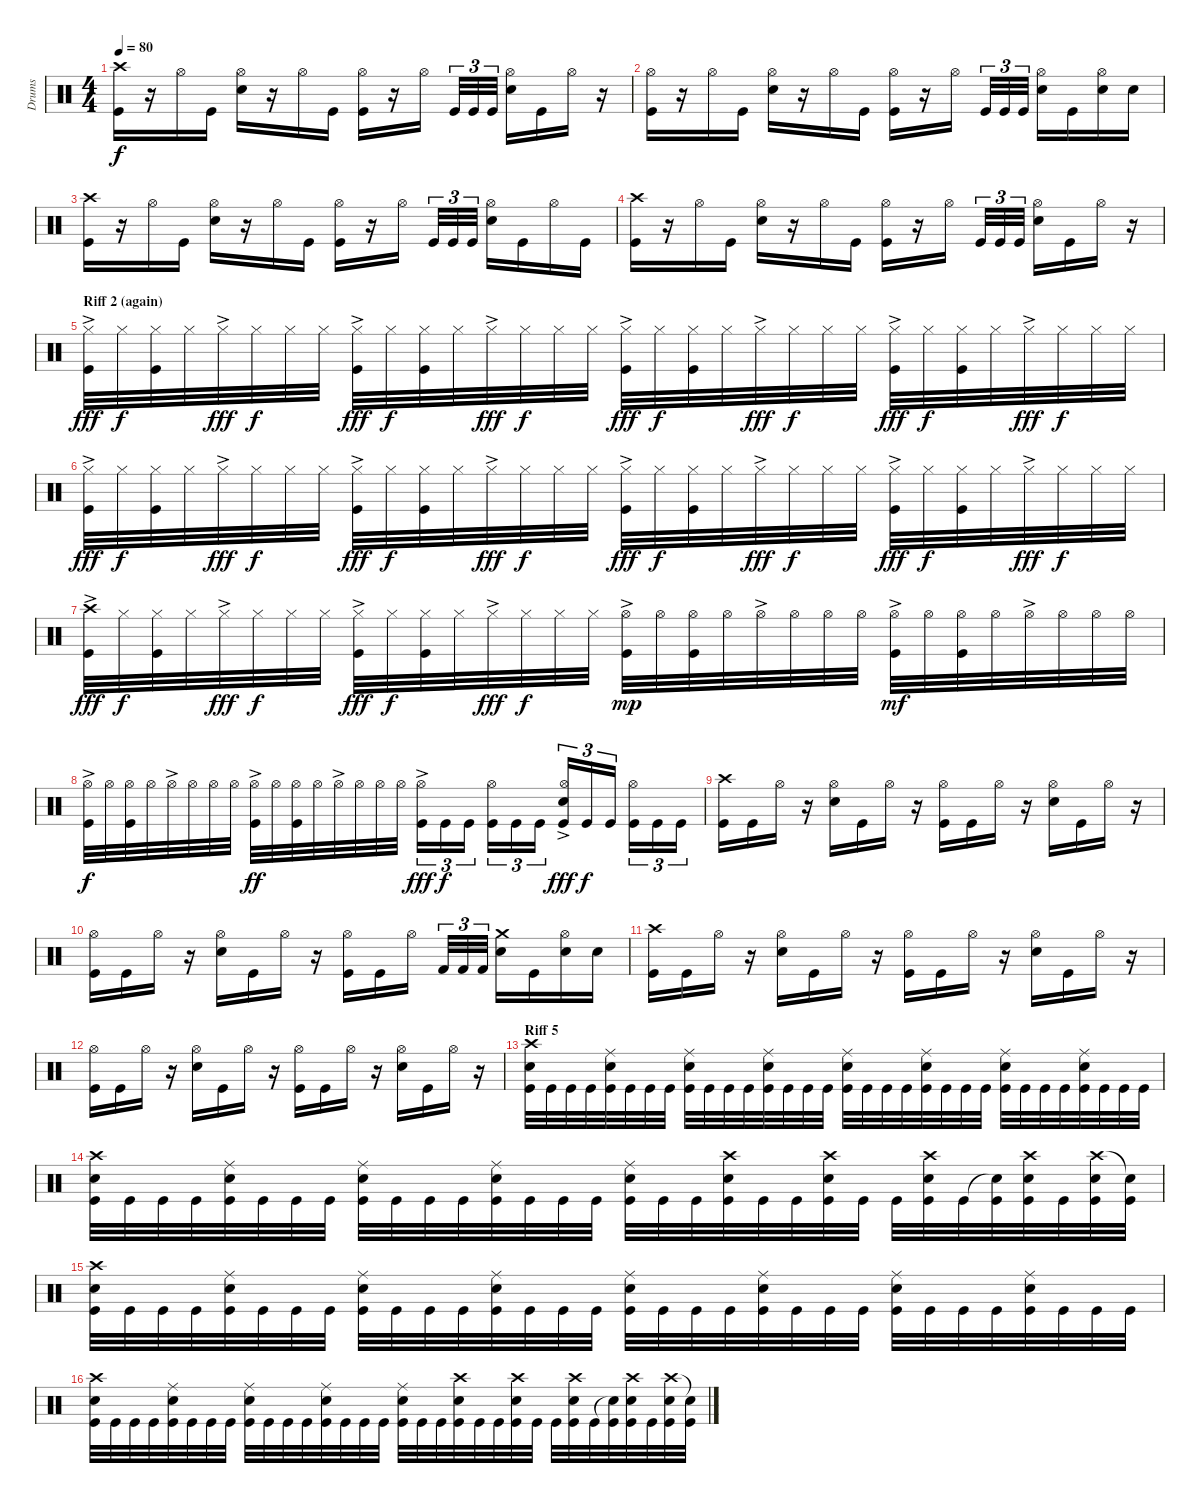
\track ("Drums" "Drums") {instrument percussion}
\staff {score}
\articulation defaults
\ts (4 4)
\tempo 80
\clef neutral
\ks c
("Crash high (hit)" "Kick (hit)").16{dy f} r.16 "Hi-Hat (open)".16 "Kick (hit)".16 ("Hi-Hat (open)" "Electric Snare (hit)").16 r.16 "Hi-Hat (open)".16 "Kick (hit)".16 ("Hi-Hat (open)" "Kick (hit)").16 r.16 "Hi-Hat (open)".16 "Kick (hit)".32{tu (3 2)} "Kick (hit)".32{tu (3 2)} "Kick (hit)".32{tu (3 2)} ("Hi-Hat (open)" "Electric Snare (hit)").16 "Kick (hit)".16 "Hi-Hat (open)".16 r.16 |
("Hi-Hat (open)" "Kick (hit)").16 r.16 "Hi-Hat (open)".16 "Kick (hit)".16 ("Hi-Hat (open)" "Electric Snare (hit)").16 r.16 "Hi-Hat (open)".16 "Kick (hit)".16 ("Hi-Hat (open)" "Kick (hit)").16 r.16 "Hi-Hat (open)".16 "Kick (hit)".32{tu (3 2)} "Kick (hit)".32{tu (3 2)} "Kick (hit)".32{tu (3 2)} ("Hi-Hat (open)" "Electric Snare (hit)").16 "Kick (hit)".16 ("Hi-Hat (open)" "Electric Snare (hit)").16 "Electric Snare (hit)".16 |
("Crash high (hit)" "Kick (hit)").16 r.16 "Hi-Hat (open)".16 "Kick (hit)".16 ("Hi-Hat (open)" "Electric Snare (hit)").16 r.16 "Hi-Hat (open)".16 "Kick (hit)".16 ("Hi-Hat (open)" "Kick (hit)").16 r.16 "Hi-Hat (open)".16 "Kick (hit)".32{tu (3 2)} "Kick (hit)".32{tu (3 2)} "Kick (hit)".32{tu (3 2)} ("Hi-Hat (open)" "Electric Snare (hit)").16 "Kick (hit)".16 "Hi-Hat (open)".16 "Kick (hit)".16 |
("Crash high (hit)" "Kick (hit)").16 r.16 "Hi-Hat (open)".16 "Kick (hit)".16 ("Hi-Hat (open)" "Electric Snare (hit)").16 r.16 "Hi-Hat (open)".16 "Kick (hit)".16 ("Hi-Hat (open)" "Kick (hit)").16 r.16 "Hi-Hat (open)".16 "Kick (hit)".32{tu (3 2)} "Kick (hit)".32{tu (3 2)} "Kick (hit)".32{tu (3 2)} ("Hi-Hat (open)" "Electric Snare (hit)").16 "Kick (hit)".16 "Hi-Hat (open)".16 r.16 |
\section ("" "Riff 2 (again)")
("Hi-Hat (closed)"{ac} "Kick (hit)").32{dy fff} "Hi-Hat (closed)".32{dy f} ("Hi-Hat (closed)" "Kick (hit)").32 "Hi-Hat (closed)".32 "Hi-Hat (closed)"{ac}.32{dy fff} "Hi-Hat (closed)".32{dy f} "Hi-Hat (closed)".32 "Hi-Hat (closed)".32 ("Hi-Hat (closed)"{ac} "Kick (hit)").32{dy fff} "Hi-Hat (closed)".32{dy f} ("Hi-Hat (closed)" "Kick (hit)").32 "Hi-Hat (closed)".32 "Hi-Hat (closed)"{ac}.32{dy fff} "Hi-Hat (closed)".32{dy f} "Hi-Hat (closed)".32 "Hi-Hat (closed)".32 ("Hi-Hat (closed)"{ac} "Kick (hit)").32{dy fff} "Hi-Hat (closed)".32{dy f} ("Hi-Hat (closed)" "Kick (hit)").32 "Hi-Hat (closed)".32 "Hi-Hat (closed)"{ac}.32{dy fff} "Hi-Hat (closed)".32{dy f} "Hi-Hat (closed)".32 "Hi-Hat (closed)".32 ("Hi-Hat (closed)"{ac} "Kick (hit)").32{dy fff} "Hi-Hat (closed)".32{dy f} ("Hi-Hat (closed)" "Kick (hit)").32 "Hi-Hat (closed)".32 "Hi-Hat (closed)"{ac}.32{dy fff} "Hi-Hat (closed)".32{dy f} "Hi-Hat (closed)".32 "Hi-Hat (closed)".32 |
("Hi-Hat (closed)"{ac} "Kick (hit)").32{dy fff} "Hi-Hat (closed)".32{dy f} ("Hi-Hat (closed)" "Kick (hit)").32 "Hi-Hat (closed)".32 "Hi-Hat (closed)"{ac}.32{dy fff} "Hi-Hat (closed)".32{dy f} "Hi-Hat (closed)".32 "Hi-Hat (closed)".32 ("Hi-Hat (closed)"{ac} "Kick (hit)").32{dy fff} "Hi-Hat (closed)".32{dy f} ("Hi-Hat (closed)" "Kick (hit)").32 "Hi-Hat (closed)".32 "Hi-Hat (closed)"{ac}.32{dy fff} "Hi-Hat (closed)".32{dy f} "Hi-Hat (closed)".32 "Hi-Hat (closed)".32 ("Hi-Hat (closed)"{ac} "Kick (hit)").32{dy fff} "Hi-Hat (closed)".32{dy f} ("Hi-Hat (closed)" "Kick (hit)").32 "Hi-Hat (closed)".32 "Hi-Hat (closed)"{ac}.32{dy fff} "Hi-Hat (closed)".32{dy f} "Hi-Hat (closed)".32 "Hi-Hat (closed)".32 ("Hi-Hat (closed)"{ac} "Kick (hit)").32{dy fff} "Hi-Hat (closed)".32{dy f} ("Hi-Hat (closed)" "Kick (hit)").32 "Hi-Hat (closed)".32 "Hi-Hat (closed)"{ac}.32{dy fff} "Hi-Hat (closed)".32{dy f} "Hi-Hat (closed)".32 "Hi-Hat (closed)".32 |
("Crash high (hit)"{ac} "Kick (hit)").32{dy fff} "Hi-Hat (closed)".32{dy f} ("Hi-Hat (closed)" "Kick (hit)").32 "Hi-Hat (closed)".32 "Hi-Hat (closed)"{ac}.32{dy fff} "Hi-Hat (closed)".32{dy f} "Hi-Hat (closed)".32 "Hi-Hat (closed)".32 ("Hi-Hat (closed)"{ac} "Kick (hit)").32{dy fff} "Hi-Hat (closed)".32{dy f} ("Hi-Hat (closed)" "Kick (hit)").32 "Hi-Hat (closed)".32 "Hi-Hat (closed)"{ac}.32{dy fff} "Hi-Hat (closed)".32{dy f} "Hi-Hat (closed)".32 "Hi-Hat (closed)".32 ("Hi-Hat (open)"{ac} "Kick (hit)").32{dy mp} "Hi-Hat (open)".32 ("Hi-Hat (open)" "Kick (hit)").32 "Hi-Hat (open)".32 "Hi-Hat (open)"{ac}.32 "Hi-Hat (open)".32 "Hi-Hat (open)".32 "Hi-Hat (open)".32 ("Hi-Hat (open)"{ac} "Kick (hit)").32{dy mf} "Hi-Hat (open)".32 ("Hi-Hat (open)" "Kick (hit)").32 "Hi-Hat (open)".32 "Hi-Hat (open)"{ac}.32 "Hi-Hat (open)".32 "Hi-Hat (open)".32 "Hi-Hat (open)".32 |
("Hi-Hat (open)"{ac} "Kick (hit)").32{dy f} "Hi-Hat (open)".32 ("Hi-Hat (open)" "Kick (hit)").32 "Hi-Hat (open)".32 "Hi-Hat (open)"{ac}.32 "Hi-Hat (open)".32 "Hi-Hat (open)".32 "Hi-Hat (open)".32 ("Hi-Hat (open)"{ac} "Kick (hit)").32{dy ff} "Hi-Hat (open)".32 ("Hi-Hat (open)" "Kick (hit)").32 "Hi-Hat (open)".32 "Hi-Hat (open)"{ac}.32 "Hi-Hat (open)".32 "Hi-Hat (open)".32 "Hi-Hat (open)".32 ("Hi-Hat (open)"{ac} "Kick (hit)").16{tu (3 2) dy fff} "Kick (hit)".16{tu (3 2) dy f} "Kick (hit)".16{tu (3 2)} ("Hi-Hat (open)" "Kick (hit)").16{tu (3 2)} "Kick (hit)".16{tu (3 2)} "Kick (hit)".16{tu (3 2)} ("Hi-Hat (open)"{ac} "Electric Snare (hit)" "Kick (hit)").16{tu (3 2) dy fff} "Kick (hit)".16{tu (3 2) dy f} "Kick (hit)".16{tu (3 2)} ("Hi-Hat (open)" "Kick (hit)").16{tu (3 2)} "Kick (hit)".16{tu (3 2)} "Kick (hit)".16{tu (3 2)} |
("Crash high (hit)" "Kick (hit)").16 "Kick (hit)".16 "Hi-Hat (open)".16 r.16 ("Hi-Hat (open)" "Electric Snare (hit)").16 "Kick (hit)".16 "Hi-Hat (open)".16 r.16 ("Hi-Hat (open)" "Kick (hit)").16 "Kick (hit)".16 "Hi-Hat (open)".16 r.16 ("Hi-Hat (open)" "Electric Snare (hit)").16 "Kick (hit)".16 "Hi-Hat (open)".16 r.16 |
("Hi-Hat (open)" "Kick (hit)").16 "Kick (hit)".16 "Hi-Hat (open)".16 r.16 ("Hi-Hat (open)" "Electric Snare (hit)").16 "Kick (hit)".16 "Hi-Hat (open)".16 r.16 ("Hi-Hat (open)" "Kick (hit)").16 "Kick (hit)".16 "Hi-Hat (open)".16 "Kick (hit) 2".32{tu (3 2)} "Kick (hit) 2".32{tu (3 2)} "Kick (hit) 2".32{tu (3 2)} ("Crash medium (hit)" "Electric Snare (hit)").16 "Kick (hit)".16 ("Hi-Hat (open)" "Electric Snare (hit)").16 "Electric Snare (hit)".16 |
("Crash high (hit)" "Kick (hit)").16 "Kick (hit)".16 "Hi-Hat (open)".16 r.16 ("Hi-Hat (open)" "Electric Snare (hit)").16 "Kick (hit)".16 "Hi-Hat (open)".16 r.16 ("Hi-Hat (open)" "Kick (hit)").16 "Kick (hit)".16 "Hi-Hat (open)".16 r.16 ("Hi-Hat (open)" "Electric Snare (hit)").16 "Kick (hit)".16 "Hi-Hat (open)".16 r.16 |
("Hi-Hat (open)" "Kick (hit)").16 "Kick (hit)".16 "Hi-Hat (open)".16 r.16 ("Hi-Hat (open)" "Electric Snare (hit)").16 "Kick (hit)".16 "Hi-Hat (open)".16 r.16 ("Hi-Hat (open)" "Kick (hit)").16 "Kick (hit)".16 "Hi-Hat (open)".16 r.16 ("Hi-Hat (open)" "Electric Snare (hit)").16 "Kick (hit)".16 "Hi-Hat (open)".16 r.16 |
\section ("" "Riff 5")
("Crash high (hit)" "Electric Snare (hit)" "Kick (hit)").32 "Kick (hit)".32 "Kick (hit)".32 "Kick (hit)".32 ("Ride (middle)" "Electric Snare (hit)" "Kick (hit)").32 "Kick (hit)".32 "Kick (hit)".32 "Kick (hit)".32 ("Ride (middle)" "Electric Snare (hit)" "Kick (hit)").32 "Kick (hit)".32 "Kick (hit)".32 "Kick (hit)".32 ("Ride (middle)" "Electric Snare (hit)" "Kick (hit)").32 "Kick (hit)".32 "Kick (hit)".32 "Kick (hit)".32 ("Ride (middle)" "Electric Snare (hit)" "Kick (hit)").32 "Kick (hit)".32 "Kick (hit)".32 "Kick (hit)".32 ("Ride (middle)" "Electric Snare (hit)" "Kick (hit)").32 "Kick (hit)".32 "Kick (hit)".32 "Kick (hit)".32 ("Ride (middle)" "Electric Snare (hit)" "Kick (hit)").32 "Kick (hit)".32 "Kick (hit)".32 "Kick (hit)".32 ("Ride (middle)" "Electric Snare (hit)" "Kick (hit)").32 "Kick (hit)".32 "Kick (hit)".32 "Kick (hit)".32 |
("Crash high (hit)" "Electric Snare (hit)" "Kick (hit)").32 "Kick (hit)".32 "Kick (hit)".32 "Kick (hit)".32 ("Ride (middle)" "Electric Snare (hit)" "Kick (hit)").32 "Kick (hit)".32 "Kick (hit)".32 "Kick (hit)".32 ("Ride (middle)" "Electric Snare (hit)" "Kick (hit)").32 "Kick (hit)".32 "Kick (hit)".32 "Kick (hit)".32 ("Ride (middle)" "Electric Snare (hit)" "Kick (hit)").32 "Kick (hit)".32 "Kick (hit)".32 "Kick (hit)".32 ("Ride (middle)" "Electric Snare (hit)" "Kick (hit)").32 "Kick (hit)".32 "Kick (hit)".32 ("Crash high (hit)" "Electric Snare (hit)" "Kick (hit)").32 "Kick (hit)".32 "Kick (hit)".32 ("Crash high (hit)" "Electric Snare (hit)" "Kick (hit)").32 "Kick (hit)".32 "Kick (hit)".32 ("Crash high (hit)" "Electric Snare (hit)" "Kick (hit)").32 "Kick (hit)".32 ("Snare (hit) 2"{t} "Kick (hit)").32 ("Crash high (hit)" "Electric Snare (hit)" "Kick (hit)").32 "Kick (hit)".32 ("Crash high (hit)" "Electric Snare (hit)" "Kick (hit)").32 ("Snare (hit)"{t} "Kick (hit)").32 |
("Crash high (hit)" "Electric Snare (hit)" "Kick (hit)").32 "Kick (hit)".32 "Kick (hit)".32 "Kick (hit)".32 ("Ride (middle)" "Electric Snare (hit)" "Kick (hit)").32 "Kick (hit)".32 "Kick (hit)".32 "Kick (hit)".32 ("Ride (middle)" "Electric Snare (hit)" "Kick (hit)").32 "Kick (hit)".32 "Kick (hit)".32 "Kick (hit)".32 ("Ride (middle)" "Electric Snare (hit)" "Kick (hit)").32 "Kick (hit)".32 "Kick (hit)".32 "Kick (hit)".32 ("Ride (middle)" "Electric Snare (hit)" "Kick (hit)").32 "Kick (hit)".32 "Kick (hit)".32 "Kick (hit)".32 ("Ride (middle)" "Electric Snare (hit)" "Kick (hit)").32 "Kick (hit)".32 "Kick (hit)".32 "Kick (hit)".32 ("Ride (middle)" "Electric Snare (hit)" "Kick (hit)").32 "Kick (hit)".32 "Kick (hit)".32 "Kick (hit)".32 ("Ride (middle)" "Electric Snare (hit)" "Kick (hit)").32 "Kick (hit)".32 "Kick (hit)".32 "Kick (hit)".32 |
("Crash high (hit)" "Electric Snare (hit)" "Kick (hit)").32 "Kick (hit)".32 "Kick (hit)".32 "Kick (hit)".32 ("Ride (middle)" "Electric Snare (hit)" "Kick (hit)").32 "Kick (hit)".32 "Kick (hit)".32 "Kick (hit)".32 ("Ride (middle)" "Electric Snare (hit)" "Kick (hit)").32 "Kick (hit)".32 "Kick (hit)".32 "Kick (hit)".32 ("Ride (middle)" "Electric Snare (hit)" "Kick (hit)").32 "Kick (hit)".32 "Kick (hit)".32 "Kick (hit)".32 ("Ride (middle)" "Electric Snare (hit)" "Kick (hit)").32 "Kick (hit)".32 "Kick (hit)".32 ("Crash high (hit)" "Electric Snare (hit)" "Kick (hit)").32 "Kick (hit)".32 "Kick (hit)".32 ("Crash high (hit)" "Electric Snare (hit)" "Kick (hit)").32 "Kick (hit)".32 "Kick (hit)".32 ("Crash high (hit)" "Electric Snare (hit)" "Kick (hit)").32 "Kick (hit)".32 ("Snare (hit) 2"{t} "Kick (hit)").32 ("Crash high (hit)" "Electric Snare (hit)" "Kick (hit)").32 "Kick (hit)".32 ("Crash high (hit)" "Electric Snare (hit)" "Kick (hit)").32 ("Snare (hit)"{t} "Kick (hit)").32
